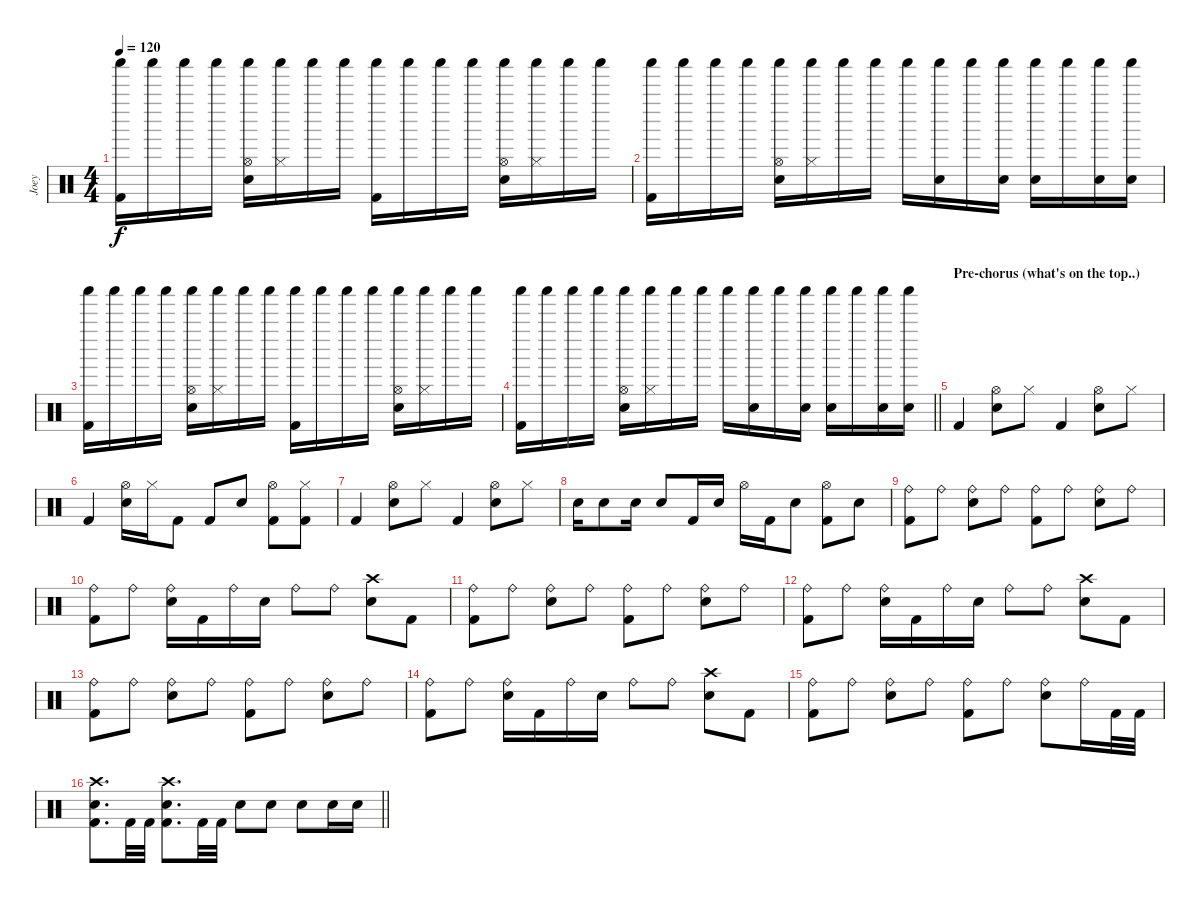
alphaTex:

\track ("Joey" "Joey") {instrument percussion}
\staff {score}
\articulation defaults
\ts (4 4)
\tempo 120
\clef neutral
\ks c
("Shaker (hit)" "Kick (hit) 2").16{dy f} "Shaker (hit)".16 "Shaker (hit)".16 "Shaker (hit)".16 ("Shaker (hit)" "Hi-Hat (open)" "Electric Snare (hit)").16 ("Shaker (hit)" "Hi-Hat (closed)").16 "Shaker (hit)".16 "Shaker (hit)".16 ("Shaker (hit)" "Kick (hit) 2").16 "Shaker (hit)".16 "Shaker (hit)".16 "Shaker (hit)".16 ("Shaker (hit)" "Hi-Hat (open)" "Electric Snare (hit)").16 ("Shaker (hit)" "Hi-Hat (closed)").16 "Shaker (hit)".16 "Shaker (hit)".16 |
("Shaker (hit)" "Kick (hit) 2").16 "Shaker (hit)".16 "Shaker (hit)".16 "Shaker (hit)".16 ("Shaker (hit)" "Hi-Hat (open)" "Electric Snare (hit)").16 ("Shaker (hit)" "Hi-Hat (closed)").16 "Shaker (hit)".16 "Shaker (hit)".16 "Shaker (hit)".16 ("Shaker (hit)" "Electric Snare (hit)").16 "Shaker (hit)".16 ("Shaker (hit)" "Electric Snare (hit)").16 ("Shaker (hit)" "Electric Snare (hit)").16 "Shaker (hit)".16 ("Shaker (hit)" "Electric Snare (hit)").16 ("Shaker (hit)" "Electric Snare (hit)").16 |
("Shaker (hit)" "Kick (hit) 2").16 "Shaker (hit)".16 "Shaker (hit)".16 "Shaker (hit)".16 ("Shaker (hit)" "Hi-Hat (open)" "Electric Snare (hit)").16 ("Shaker (hit)" "Hi-Hat (closed)").16 "Shaker (hit)".16 "Shaker (hit)".16 ("Shaker (hit)" "Kick (hit) 2").16 "Shaker (hit)".16 "Shaker (hit)".16 "Shaker (hit)".16 ("Shaker (hit)" "Hi-Hat (open)" "Electric Snare (hit)").16 ("Shaker (hit)" "Hi-Hat (closed)").16 "Shaker (hit)".16 "Shaker (hit)".16 |
\barLineRight lightlight
("Shaker (hit)" "Kick (hit) 2").16 "Shaker (hit)".16 "Shaker (hit)".16 "Shaker (hit)".16 ("Shaker (hit)" "Hi-Hat (open)" "Electric Snare (hit)").16 ("Shaker (hit)" "Hi-Hat (closed)").16 "Shaker (hit)".16 "Shaker (hit)".16 "Shaker (hit)".16 ("Shaker (hit)" "Electric Snare (hit)").16 "Shaker (hit)".16 ("Shaker (hit)" "Electric Snare (hit)").16 ("Shaker (hit)" "Electric Snare (hit)").16 "Shaker (hit)".16 ("Shaker (hit)" "Electric Snare (hit)").16 ("Shaker (hit)" "Electric Snare (hit)").16 |
\section ("" "Pre-chorus (what's on the top..)")
"Kick (hit) 2".4 ("Hi-Hat (open)" "Electric Snare (hit)").8 "Hi-Hat (closed)".8 "Kick (hit) 2".4 ("Hi-Hat (open)" "Electric Snare (hit)").8 "Hi-Hat (closed)".8 |
"Kick (hit) 2".4 ("Hi-Hat (open)" "Electric Snare (hit)").16 "Hi-Hat (closed)".16 "Kick (hit) 2".8 "Kick (hit) 2".8 "Electric Snare (hit)".8 ("Hi-Hat (open)" "Kick (hit) 2").8 ("Hi-Hat (closed)" "Kick (hit) 2").8 |
"Kick (hit) 2".4 ("Hi-Hat (open)" "Electric Snare (hit)").8 "Hi-Hat (closed)".8 "Kick (hit) 2".4 ("Hi-Hat (open)" "Electric Snare (hit)").8 "Hi-Hat (closed)".8 |
"Electric Snare (hit)".16 "Electric Snare (hit)".8 "Electric Snare (hit)".16 "Electric Snare (hit)".8 "Kick (hit) 2".16 "Electric Snare (hit)".16 "Hi-Hat (open)".16 "Kick (hit) 2".16 "Electric Snare (hit)".8 ("Hi-Hat (open)" "Kick (hit) 2").8 "Electric Snare (hit)".8 |
("Ride (bell)" "Kick (hit) 2").8 "Ride (bell)".8 ("Ride (bell)" "Electric Snare (hit)").8 "Ride (bell)".8 ("Ride (bell)" "Kick (hit) 2").8 "Ride (bell)".8 ("Ride (bell)" "Electric Snare (hit)").8 "Ride (bell)".8 |
("Ride (bell)" "Kick (hit) 2").8 "Ride (bell)".8 ("Ride (bell)" "Electric Snare (hit)").16 "Kick (hit) 2".16 "Ride (bell)".16 "Electric Snare (hit)".16 "Ride (bell)".8 "Ride (bell)".8 ("Crash high (hit)" "Electric Snare (hit)").8 "Kick (hit) 2".8 |
("Ride (bell)" "Kick (hit) 2").8 "Ride (bell)".8 ("Ride (bell)" "Electric Snare (hit)").8 "Ride (bell)".8 ("Ride (bell)" "Kick (hit) 2").8 "Ride (bell)".8 ("Ride (bell)" "Electric Snare (hit)").8 "Ride (bell)".8 |
("Ride (bell)" "Kick (hit) 2").8 "Ride (bell)".8 ("Ride (bell)" "Electric Snare (hit)").16 "Kick (hit) 2".16 "Ride (bell)".16 "Electric Snare (hit)".16 "Ride (bell)".8 "Ride (bell)".8 ("Crash high (hit)" "Electric Snare (hit)").8 "Kick (hit) 2".8 |
("Ride (bell)" "Kick (hit) 2").8 "Ride (bell)".8 ("Ride (bell)" "Electric Snare (hit)").8 "Ride (bell)".8 ("Ride (bell)" "Kick (hit) 2").8 "Ride (bell)".8 ("Ride (bell)" "Electric Snare (hit)").8 "Ride (bell)".8 |
("Ride (bell)" "Kick (hit) 2").8 "Ride (bell)".8 ("Ride (bell)" "Electric Snare (hit)").16 "Kick (hit) 2".16 "Ride (bell)".16 "Electric Snare (hit)".16 "Ride (bell)".8 "Ride (bell)".8 ("Crash high (hit)" "Electric Snare (hit)").8 "Kick (hit) 2".8 |
("Ride (bell)" "Kick (hit) 2").8 "Ride (bell)".8 ("Ride (bell)" "Electric Snare (hit)").8 "Ride (bell)".8 ("Ride (bell)" "Kick (hit) 2").8 "Ride (bell)".8 ("Ride (bell)" "Electric Snare (hit)").8 "Ride (bell)".16 "Kick (hit) 2".32 "Kick (hit) 2".32 |
\barLineRight lightlight
("Crash high (hit)" "Electric Snare (hit)" "Kick (hit) 2").8{d} "Kick (hit) 2".32 "Kick (hit) 2".32 ("Crash high (hit)" "Electric Snare (hit)" "Kick (hit) 2").8{d} "Kick (hit) 2".32 "Kick (hit) 2".32 "Electric Snare (hit)".8 "Electric Snare (hit)".8 "Electric Snare (hit)".8 "Electric Snare (hit)".16 "Electric Snare (hit)".16
